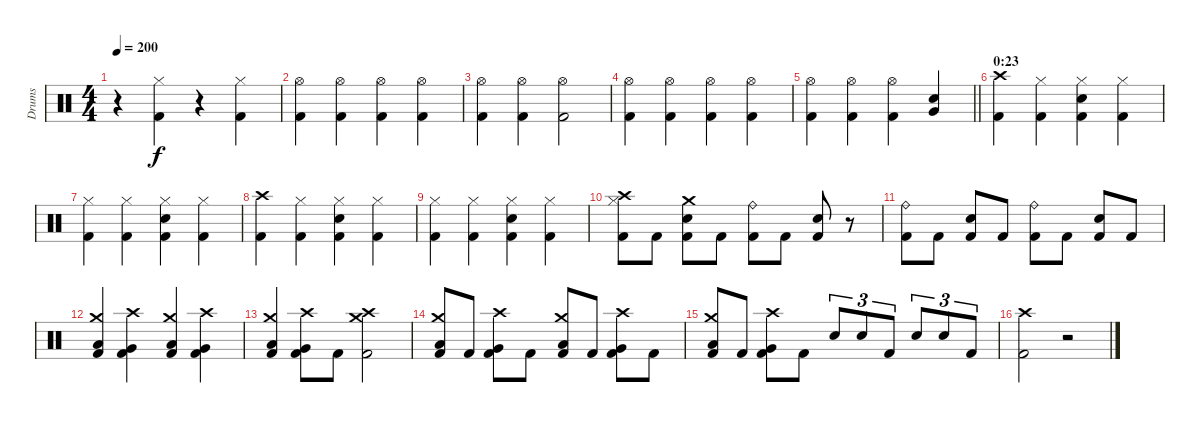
\track ("Drums" "Drums") {instrument percussion}
\staff {score}
\articulation defaults
\ts (4 4)
\tempo 200
\clef neutral
\ks c
r.4{dy f} ("Hi-Hat (closed)" "Kick (hit) 2").4 r.4 ("Hi-Hat (closed)" "Kick (hit) 2").4 |
("Hi-Hat (open)" "Kick (hit) 2").4 ("Hi-Hat (open)" "Kick (hit) 2").4 ("Hi-Hat (open)" "Kick (hit) 2").4 ("Hi-Hat (open)" "Kick (hit) 2").4 |
("Hi-Hat (open)" "Kick (hit) 2").4 ("Hi-Hat (open)" "Kick (hit) 2").4 ("Hi-Hat (open)" "Kick (hit) 2").2 |
("Hi-Hat (open)" "Kick (hit) 2").4 ("Hi-Hat (open)" "Kick (hit) 2").4 ("Hi-Hat (open)" "Kick (hit) 2").4 ("Hi-Hat (open)" "Kick (hit) 2").4 |
\barLineRight lightlight
("Hi-Hat (open)" "Kick (hit) 2").4 ("Hi-Hat (open)" "Kick (hit) 2").4 ("Hi-Hat (open)" "Kick (hit) 2").4 ("Snare (hit) 2" "Very Low Tom (hit)").4 |
\section ("" "0:23")
("Crash high (hit)" "Kick (hit) 2").4 ("Hi-Hat (closed)" "Kick (hit) 2").4 ("Snare (hit) 2" "Hi-Hat (closed)" "Kick (hit) 2").4 ("Hi-Hat (closed)" "Kick (hit) 2").4 |
("Hi-Hat (closed)" "Kick (hit) 2").4 ("Hi-Hat (closed)" "Kick (hit) 2").4 ("Snare (hit) 2" "Hi-Hat (closed)" "Kick (hit) 2").4 ("Hi-Hat (closed)" "Kick (hit) 2").4 |
("Crash high (hit)" "Kick (hit) 2").4 ("Hi-Hat (closed)" "Kick (hit) 2").4 ("Snare (hit) 2" "Hi-Hat (closed)" "Kick (hit) 2").4 ("Hi-Hat (closed)" "Kick (hit) 2").4 |
("Hi-Hat (closed)" "Kick (hit) 2").4 ("Hi-Hat (closed)" "Kick (hit) 2").4 ("Snare (hit) 2" "Hi-Hat (closed)" "Kick (hit) 2").4 ("Hi-Hat (closed)" "Kick (hit) 2").4 |
("Crash high (hit)" "Hi-Hat (closed)" "Kick (hit) 2").8 "Kick (hit) 2".8 ("Crash medium (hit)" "Snare (hit) 2" "Kick (hit) 2").8 "Kick (hit) 2".8 ("Ride (bell)" "Kick (hit) 2").8 "Kick (hit) 2".8 ("Snare (hit) 2" "Kick (hit) 2").8 r.8 |
("Ride (bell)" "Kick (hit) 2").8 "Kick (hit) 2".8 ("Snare (hit) 2" "Kick (hit) 2").8 "Kick (hit) 2".8 ("Ride (bell)" "Kick (hit) 2").8 "Kick (hit) 2".8 ("Snare (hit) 2" "Kick (hit) 2").8 "Kick (hit) 2".8 |
("Crash medium (hit)" "Low Tom (hit)" "Kick (hit) 2").4 ("Crash high (hit)" "Very Low Tom (hit)" "Kick (hit) 2").4 ("Crash medium (hit)" "Low Tom (hit)" "Kick (hit) 2").4 ("Crash high (hit)" "Very Low Tom (hit)" "Kick (hit) 2").4 |
("Crash medium (hit)" "Low Tom (hit)" "Kick (hit) 2").4 ("Crash high (hit)" "Very Low Tom (hit)" "Kick (hit) 2").8 "Kick (hit) 2".8 ("Crash medium (hit)" "Crash high (hit)" "Kick (hit) 2").2 |
("Crash medium (hit)" "Low Tom (hit)" "Kick (hit) 2").8 "Kick (hit) 2".8 ("Crash high (hit)" "Very Low Tom (hit)" "Kick (hit) 2").8 "Kick (hit) 2".8 ("Crash medium (hit)" "Low Tom (hit)" "Kick (hit) 2").8 "Kick (hit) 2".8 ("Crash high (hit)" "Very Low Tom (hit)" "Kick (hit) 2").8 "Kick (hit) 2".8 |
("Crash medium (hit)" "Low Tom (hit)" "Kick (hit) 2").8 "Kick (hit) 2".8 ("Crash high (hit)" "Very Low Tom (hit)" "Kick (hit) 2").8 "Kick (hit) 2".8 "Snare (hit) 2".8{tu (3 2)} "Snare (hit) 2".8{tu (3 2)} "Kick (hit) 2".8{tu (3 2)} "Snare (hit) 2".8{tu (3 2)} "Snare (hit) 2".8{tu (3 2)} "Kick (hit) 2".8{tu (3 2)} |
("Crash high (hit)" "Kick (hit) 2").2 r.2
